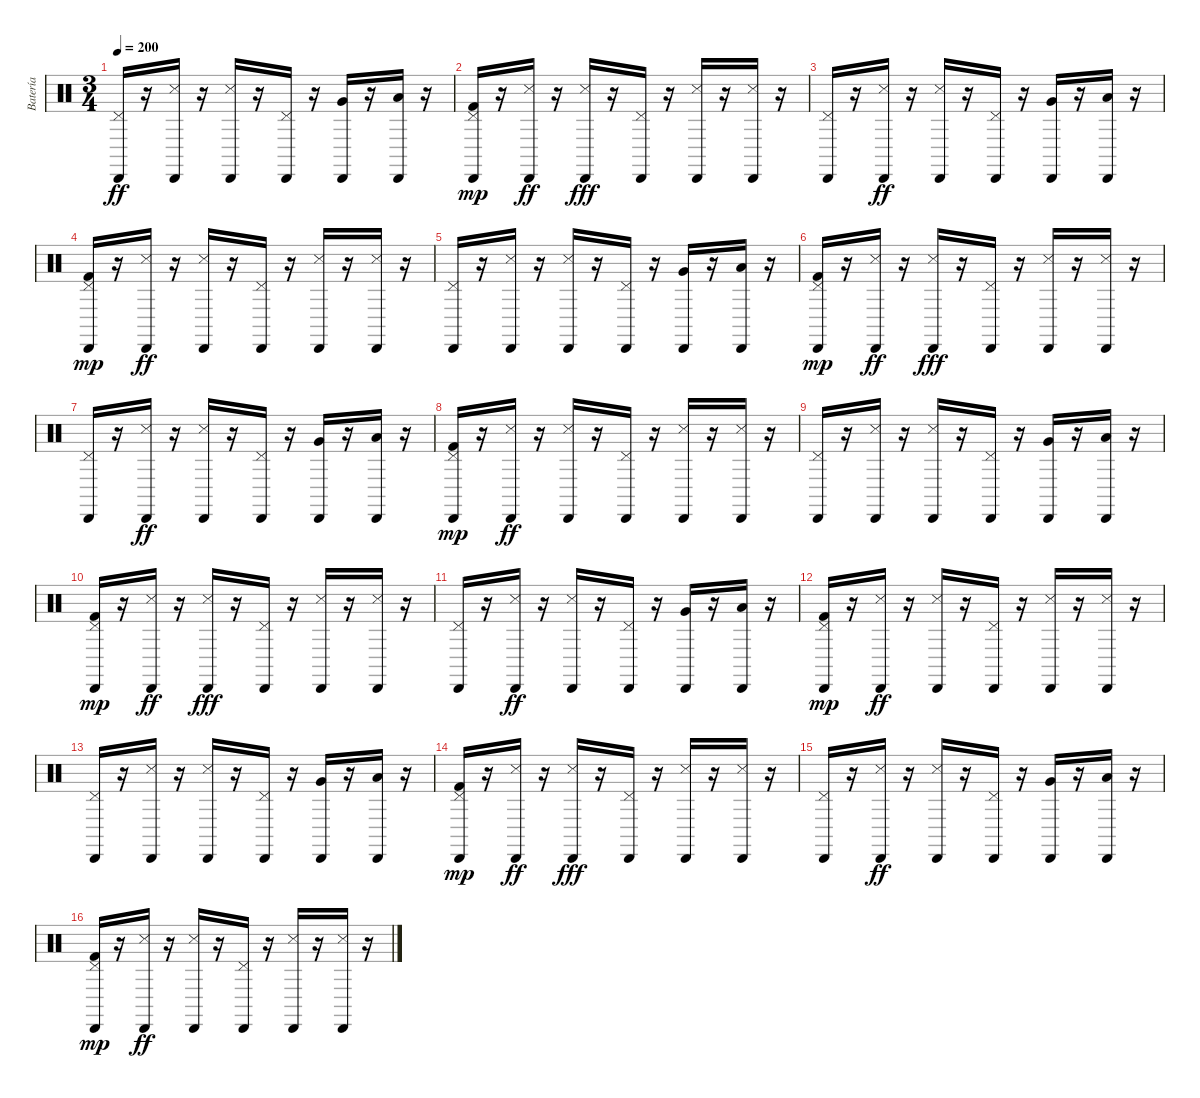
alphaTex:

\track ("Batería" "Batería") {instrument percussion}
\staff {score}
\articulation defaults
\ts (3 4)
\tempo 200
\clef neutral
\ks c
("Cabasa (hit)" "Pedal Hi-Hat (hit)").16{dy ff} r.16 ("Cabasa (hit)" "Snare (side stick) 3").16 r.16 ("Cabasa (hit)" "Snare (side stick) 3").16 r.16 ("Cabasa (hit)" "Pedal Hi-Hat (hit)").16 r.16 ("Cabasa (hit)" "Very Low Tom (hit)").16 r.16 ("Cabasa (hit)" "Low Floor Tom (hit)").16 r.16 |
("Cabasa (hit)" "Pedal Hi-Hat (hit)" "Kick (hit) 2").16{dy mp} r.16 ("Cabasa (hit)" "Snare (side stick) 3").16{dy ff} r.16 ("Cabasa (hit)" "Snare (side stick) 3").16{dy fff} r.16 ("Cabasa (hit)" "Pedal Hi-Hat (hit)").16 r.16 ("Cabasa (hit)" "Snare (side stick) 3").16 r.16 ("Cabasa (hit)" "Snare (side stick) 3").16 r.16 |
("Cabasa (hit)" "Pedal Hi-Hat (hit)").16 r.16 ("Cabasa (hit)" "Snare (side stick) 3").16{dy ff} r.16 ("Cabasa (hit)" "Snare (side stick) 3").16 r.16 ("Cabasa (hit)" "Pedal Hi-Hat (hit)").16 r.16 ("Cabasa (hit)" "Very Low Tom (hit)").16 r.16 ("Cabasa (hit)" "Low Floor Tom (hit)").16 r.16 |
("Cabasa (hit)" "Pedal Hi-Hat (hit)" "Kick (hit) 2").16{dy mp} r.16 ("Cabasa (hit)" "Snare (side stick) 3").16{dy ff} r.16 ("Cabasa (hit)" "Snare (side stick) 3").16 r.16 ("Cabasa (hit)" "Pedal Hi-Hat (hit)").16 r.16 ("Cabasa (hit)" "Snare (side stick) 3").16 r.16 ("Cabasa (hit)" "Snare (side stick) 3").16 r.16 |
("Cabasa (hit)" "Pedal Hi-Hat (hit)").16 r.16 ("Cabasa (hit)" "Snare (side stick) 3").16 r.16 ("Cabasa (hit)" "Snare (side stick) 3").16 r.16 ("Cabasa (hit)" "Pedal Hi-Hat (hit)").16 r.16 ("Cabasa (hit)" "Very Low Tom (hit)").16 r.16 ("Cabasa (hit)" "Low Floor Tom (hit)").16 r.16 |
("Cabasa (hit)" "Pedal Hi-Hat (hit)" "Kick (hit) 2").16{dy mp} r.16 ("Cabasa (hit)" "Snare (side stick) 3").16{dy ff} r.16 ("Cabasa (hit)" "Snare (side stick) 3").16{dy fff} r.16 ("Cabasa (hit)" "Pedal Hi-Hat (hit)").16 r.16 ("Cabasa (hit)" "Snare (side stick) 3").16 r.16 ("Cabasa (hit)" "Snare (side stick) 3").16 r.16 |
("Cabasa (hit)" "Pedal Hi-Hat (hit)").16 r.16 ("Cabasa (hit)" "Snare (side stick) 3").16{dy ff} r.16 ("Cabasa (hit)" "Snare (side stick) 3").16 r.16 ("Cabasa (hit)" "Pedal Hi-Hat (hit)").16 r.16 ("Cabasa (hit)" "Very Low Tom (hit)").16 r.16 ("Cabasa (hit)" "Low Floor Tom (hit)").16 r.16 |
("Cabasa (hit)" "Pedal Hi-Hat (hit)" "Kick (hit) 2").16{dy mp} r.16 ("Cabasa (hit)" "Snare (side stick) 3").16{dy ff} r.16 ("Cabasa (hit)" "Snare (side stick) 3").16 r.16 ("Cabasa (hit)" "Pedal Hi-Hat (hit)").16 r.16 ("Cabasa (hit)" "Snare (side stick) 3").16 r.16 ("Cabasa (hit)" "Snare (side stick) 3").16 r.16 |
("Cabasa (hit)" "Pedal Hi-Hat (hit)").16 r.16 ("Cabasa (hit)" "Snare (side stick) 3").16 r.16 ("Cabasa (hit)" "Snare (side stick) 3").16 r.16 ("Cabasa (hit)" "Pedal Hi-Hat (hit)").16 r.16 ("Cabasa (hit)" "Very Low Tom (hit)").16 r.16 ("Cabasa (hit)" "Low Floor Tom (hit)").16 r.16 |
("Cabasa (hit)" "Pedal Hi-Hat (hit)" "Kick (hit) 2").16{dy mp volume 11} r.16 ("Cabasa (hit)" "Snare (side stick) 3").16{dy ff} r.16 ("Cabasa (hit)" "Snare (side stick) 3").16{dy fff} r.16 ("Cabasa (hit)" "Pedal Hi-Hat (hit)").16 r.16 ("Cabasa (hit)" "Snare (side stick) 3").16{volume 10} r.16 ("Cabasa (hit)" "Snare (side stick) 3").16 r.16 |
("Cabasa (hit)" "Pedal Hi-Hat (hit)").16 r.16 ("Cabasa (hit)" "Snare (side stick) 3").16{dy ff} r.16 ("Cabasa (hit)" "Snare (side stick) 3").16{volume 9} r.16 ("Cabasa (hit)" "Pedal Hi-Hat (hit)").16 r.16 ("Cabasa (hit)" "Very Low Tom (hit)").16 r.16 ("Cabasa (hit)" "Low Floor Tom (hit)").16 r.16 |
("Cabasa (hit)" "Pedal Hi-Hat (hit)" "Kick (hit) 2").16{dy mp volume 8} r.16 ("Cabasa (hit)" "Snare (side stick) 3").16{dy ff} r.16 ("Cabasa (hit)" "Snare (side stick) 3").16 r.16 ("Cabasa (hit)" "Pedal Hi-Hat (hit)").16 r.16 ("Cabasa (hit)" "Snare (side stick) 3").16{volume 7} r.16 ("Cabasa (hit)" "Snare (side stick) 3").16 r.16 |
("Cabasa (hit)" "Pedal Hi-Hat (hit)").16 r.16 ("Cabasa (hit)" "Snare (side stick) 3").16 r.16 ("Cabasa (hit)" "Snare (side stick) 3").16{volume 6} r.16 ("Cabasa (hit)" "Pedal Hi-Hat (hit)").16 r.16 ("Cabasa (hit)" "Very Low Tom (hit)").16 r.16 ("Cabasa (hit)" "Low Floor Tom (hit)").16 r.16 |
("Cabasa (hit)" "Pedal Hi-Hat (hit)" "Kick (hit) 2").16{dy mp volume 5} r.16 ("Cabasa (hit)" "Snare (side stick) 3").16{dy ff} r.16 ("Cabasa (hit)" "Snare (side stick) 3").16{dy fff} r.16 ("Cabasa (hit)" "Pedal Hi-Hat (hit)").16 r.16 ("Cabasa (hit)" "Snare (side stick) 3").16{volume 4} r.16 ("Cabasa (hit)" "Snare (side stick) 3").16 r.16 |
("Cabasa (hit)" "Pedal Hi-Hat (hit)").16 r.16 ("Cabasa (hit)" "Snare (side stick) 3").16{dy ff} r.16 ("Cabasa (hit)" "Snare (side stick) 3").16{volume 4} r.16 ("Cabasa (hit)" "Pedal Hi-Hat (hit)").16 r.16 ("Cabasa (hit)" "Very Low Tom (hit)").16 r.16 ("Cabasa (hit)" "Low Floor Tom (hit)").16 r.16 |
("Cabasa (hit)" "Pedal Hi-Hat (hit)" "Kick (hit) 2").16{dy mp volume 3} r.16 ("Cabasa (hit)" "Snare (side stick) 3").16{dy ff} r.16 ("Cabasa (hit)" "Snare (side stick) 3").16 r.16 ("Cabasa (hit)" "Pedal Hi-Hat (hit)").16 r.16 ("Cabasa (hit)" "Snare (side stick) 3").16{volume 2} r.16 ("Cabasa (hit)" "Snare (side stick) 3").16 r.16
